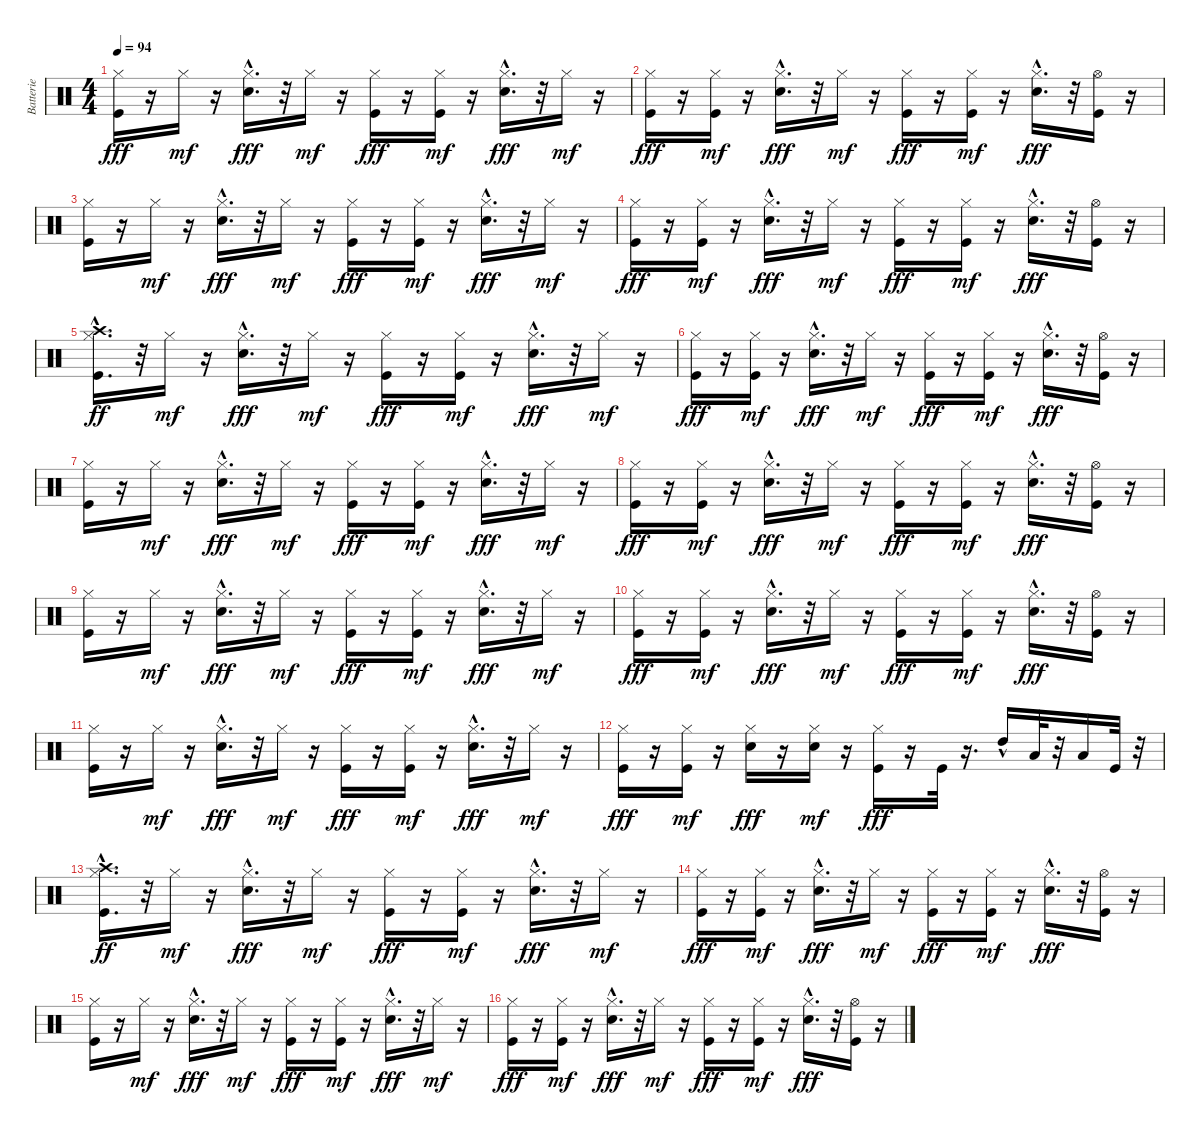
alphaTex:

\track ("Batterie" "Batterie") {instrument percussion}
\staff {score}
\articulation defaults
\ts (4 4)
\tempo 94
\clef neutral
\ks c
("Kick (hit)" "Hi-Hat (closed)").16{dy fff} r.16 "Hi-Hat (closed)".16{dy mf} r.16 ("Snare (hit) 2"{hac} "Hi-Hat (closed)").16{d dy fff} r.32 "Hi-Hat (closed)".16{dy mf} r.16 ("Kick (hit)" "Hi-Hat (closed)").16{dy fff} r.16 ("Kick (hit)" "Hi-Hat (closed)").16{dy mf} r.16 ("Snare (hit) 2"{hac} "Hi-Hat (closed)").16{d dy fff} r.32 "Hi-Hat (closed)".16{dy mf} r.16 |
("Kick (hit)" "Hi-Hat (closed)").16{dy fff} r.16 ("Kick (hit)" "Hi-Hat (closed)").16{dy mf} r.16 ("Snare (hit) 2"{hac} "Hi-Hat (closed)").16{d dy fff} r.32 "Hi-Hat (closed)".16{dy mf} r.16 ("Kick (hit)" "Hi-Hat (closed)").16{dy fff} r.16 ("Kick (hit)" "Hi-Hat (closed)").16{dy mf} r.16 ("Snare (hit) 2"{hac} "Hi-Hat (closed)").16{d dy fff} r.32 ("Kick (hit)" "Hi-Hat (open)").16 r.16 |
("Kick (hit)" "Hi-Hat (closed)").16 r.16 "Hi-Hat (closed)".16{dy mf} r.16 ("Snare (hit) 2"{hac} "Hi-Hat (closed)").16{d dy fff} r.32 "Hi-Hat (closed)".16{dy mf} r.16 ("Kick (hit)" "Hi-Hat (closed)").16{dy fff} r.16 ("Kick (hit)" "Hi-Hat (closed)").16{dy mf} r.16 ("Snare (hit) 2"{hac} "Hi-Hat (closed)").16{d dy fff} r.32 "Hi-Hat (closed)".16{dy mf} r.16 |
("Kick (hit)" "Hi-Hat (closed)").16{dy fff} r.16 ("Kick (hit)" "Hi-Hat (closed)").16{dy mf} r.16 ("Snare (hit) 2"{hac} "Hi-Hat (closed)").16{d dy fff} r.32 "Hi-Hat (closed)".16{dy mf} r.16 ("Kick (hit)" "Hi-Hat (closed)").16{dy fff} r.16 ("Kick (hit)" "Hi-Hat (closed)").16{dy mf} r.16 ("Snare (hit) 2"{hac} "Hi-Hat (closed)").16{d dy fff} r.32 ("Kick (hit)" "Hi-Hat (open)").16 r.16 |
("Kick (hit)" "Hi-Hat (closed)" "Crash high (hit)"{hac}).16{d dy ff} r.32 "Hi-Hat (closed)".16{dy mf} r.16 ("Snare (hit) 2"{hac} "Hi-Hat (closed)").16{d dy fff} r.32 "Hi-Hat (closed)".16{dy mf} r.16 ("Kick (hit)" "Hi-Hat (closed)").16{dy fff} r.16 ("Kick (hit)" "Hi-Hat (closed)").16{dy mf} r.16 ("Snare (hit) 2"{hac} "Hi-Hat (closed)").16{d dy fff} r.32 "Hi-Hat (closed)".16{dy mf} r.16 |
("Kick (hit)" "Hi-Hat (closed)").16{dy fff} r.16 ("Kick (hit)" "Hi-Hat (closed)").16{dy mf} r.16 ("Snare (hit) 2"{hac} "Hi-Hat (closed)").16{d dy fff} r.32 "Hi-Hat (closed)".16{dy mf} r.16 ("Kick (hit)" "Hi-Hat (closed)").16{dy fff} r.16 ("Kick (hit)" "Hi-Hat (closed)").16{dy mf} r.16 ("Snare (hit) 2"{hac} "Hi-Hat (closed)").16{d dy fff} r.32 ("Kick (hit)" "Hi-Hat (open)").16 r.16 |
("Kick (hit)" "Hi-Hat (closed)").16 r.16 "Hi-Hat (closed)".16{dy mf} r.16 ("Snare (hit) 2"{hac} "Hi-Hat (closed)").16{d dy fff} r.32 "Hi-Hat (closed)".16{dy mf} r.16 ("Kick (hit)" "Hi-Hat (closed)").16{dy fff} r.16 ("Kick (hit)" "Hi-Hat (closed)").16{dy mf} r.16 ("Snare (hit) 2"{hac} "Hi-Hat (closed)").16{d dy fff} r.32 "Hi-Hat (closed)".16{dy mf} r.16 |
("Kick (hit)" "Hi-Hat (closed)").16{dy fff} r.16 ("Kick (hit)" "Hi-Hat (closed)").16{dy mf} r.16 ("Snare (hit) 2"{hac} "Hi-Hat (closed)").16{d dy fff} r.32 "Hi-Hat (closed)".16{dy mf} r.16 ("Kick (hit)" "Hi-Hat (closed)").16{dy fff} r.16 ("Kick (hit)" "Hi-Hat (closed)").16{dy mf} r.16 ("Snare (hit) 2"{hac} "Hi-Hat (closed)").16{d dy fff} r.32 ("Kick (hit)" "Hi-Hat (open)").16 r.16 |
("Kick (hit)" "Hi-Hat (closed)").16 r.16 "Hi-Hat (closed)".16{dy mf} r.16 ("Snare (hit) 2"{hac} "Hi-Hat (closed)").16{d dy fff} r.32 "Hi-Hat (closed)".16{dy mf} r.16 ("Kick (hit)" "Hi-Hat (closed)").16{dy fff} r.16 ("Kick (hit)" "Hi-Hat (closed)").16{dy mf} r.16 ("Snare (hit) 2"{hac} "Hi-Hat (closed)").16{d dy fff} r.32 "Hi-Hat (closed)".16{dy mf} r.16 |
("Kick (hit)" "Hi-Hat (closed)").16{dy fff} r.16 ("Kick (hit)" "Hi-Hat (closed)").16{dy mf} r.16 ("Snare (hit) 2"{hac} "Hi-Hat (closed)").16{d dy fff} r.32 "Hi-Hat (closed)".16{dy mf} r.16 ("Kick (hit)" "Hi-Hat (closed)").16{dy fff} r.16 ("Kick (hit)" "Hi-Hat (closed)").16{dy mf} r.16 ("Snare (hit) 2"{hac} "Hi-Hat (closed)").16{d dy fff} r.32 ("Kick (hit)" "Hi-Hat (open)").16 r.16 |
("Kick (hit)" "Hi-Hat (closed)").16 r.16 "Hi-Hat (closed)".16{dy mf} r.16 ("Snare (hit) 2"{hac} "Hi-Hat (closed)").16{d dy fff} r.32 "Hi-Hat (closed)".16{dy mf} r.16 ("Kick (hit)" "Hi-Hat (closed)").16{dy fff} r.16 ("Kick (hit)" "Hi-Hat (closed)").16{dy mf} r.16 ("Snare (hit) 2"{hac} "Hi-Hat (closed)").16{d dy fff} r.32 "Hi-Hat (closed)".16{dy mf} r.16 |
("Kick (hit)" "Hi-Hat (closed)").16{dy fff} r.16 ("Kick (hit)" "Hi-Hat (closed)").16{dy mf} r.16 ("Snare (hit) 2" "Hi-Hat (closed)").16{dy fff} r.16 ("Snare (hit) 2" "Hi-Hat (closed)").16{dy mf} r.16 ("Kick (hit)" "Hi-Hat (closed)").16{dy fff} r.16 "Kick (hit)".32 r.16{d} "High Tom (hit)"{hac}.16 "Low Tom (hit)".32 r.32 "Low Floor Tom (hit)".16 "Kick (hit)".32 r.32 |
("Kick (hit)" "Hi-Hat (closed)" "Crash high (hit)"{hac}).16{d dy ff} r.32 "Hi-Hat (closed)".16{dy mf} r.16 ("Snare (hit) 2"{hac} "Hi-Hat (closed)").16{d dy fff} r.32 "Hi-Hat (closed)".16{dy mf} r.16 ("Kick (hit)" "Hi-Hat (closed)").16{dy fff} r.16 ("Kick (hit)" "Hi-Hat (closed)").16{dy mf} r.16 ("Snare (hit) 2"{hac} "Hi-Hat (closed)").16{d dy fff} r.32 "Hi-Hat (closed)".16{dy mf} r.16 |
("Kick (hit)" "Hi-Hat (closed)").16{dy fff} r.16 ("Kick (hit)" "Hi-Hat (closed)").16{dy mf} r.16 ("Snare (hit) 2"{hac} "Hi-Hat (closed)").16{d dy fff} r.32 "Hi-Hat (closed)".16{dy mf} r.16 ("Kick (hit)" "Hi-Hat (closed)").16{dy fff} r.16 ("Kick (hit)" "Hi-Hat (closed)").16{dy mf} r.16 ("Snare (hit) 2"{hac} "Hi-Hat (closed)").16{d dy fff} r.32 ("Kick (hit)" "Hi-Hat (open)").16 r.16 |
("Kick (hit)" "Hi-Hat (closed)").16 r.16 "Hi-Hat (closed)".16{dy mf} r.16 ("Snare (hit) 2"{hac} "Hi-Hat (closed)").16{d dy fff} r.32 "Hi-Hat (closed)".16{dy mf} r.16 ("Kick (hit)" "Hi-Hat (closed)").16{dy fff} r.16 ("Kick (hit)" "Hi-Hat (closed)").16{dy mf} r.16 ("Snare (hit) 2"{hac} "Hi-Hat (closed)").16{d dy fff} r.32 "Hi-Hat (closed)".16{dy mf} r.16 |
("Kick (hit)" "Hi-Hat (closed)").16{dy fff} r.16 ("Kick (hit)" "Hi-Hat (closed)").16{dy mf} r.16 ("Snare (hit) 2"{hac} "Hi-Hat (closed)").16{d dy fff} r.32 "Hi-Hat (closed)".16{dy mf} r.16 ("Kick (hit)" "Hi-Hat (closed)").16{dy fff} r.16 ("Kick (hit)" "Hi-Hat (closed)").16{dy mf} r.16 ("Snare (hit) 2"{hac} "Hi-Hat (closed)").16{d dy fff} r.32 ("Kick (hit)" "Hi-Hat (open)").16 r.16
